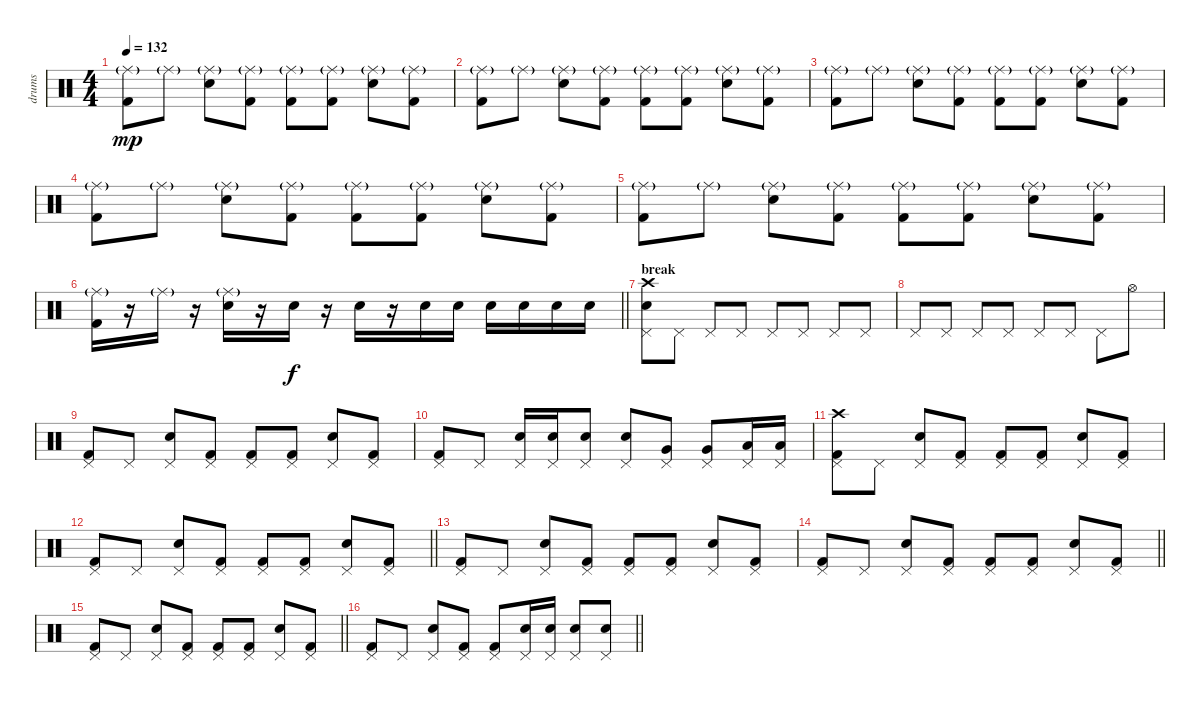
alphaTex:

\track ("drums" "drums") {instrument percussion}
\staff {score}
\articulation defaults
\ts (4 4)
\tempo 132
\clef neutral
\ks c
("Kick (hit) 2" "Ride (middle)"{g}).8{dy mp} "Ride (middle)"{g}.8 ("Electric Snare (hit)" "Ride (middle)"{g}).8 ("Kick (hit) 2" "Ride (middle)"{g}).8 ("Kick (hit) 2" "Ride (middle)"{g}).8 ("Kick (hit) 2" "Ride (middle)"{g}).8 ("Electric Snare (hit)" "Ride (middle)"{g}).8 ("Kick (hit) 2" "Ride (middle)"{g}).8 |
("Kick (hit) 2" "Ride (middle)"{g}).8 "Ride (middle)"{g}.8 ("Electric Snare (hit)" "Ride (middle)"{g}).8 ("Kick (hit) 2" "Ride (middle)"{g}).8 ("Kick (hit) 2" "Ride (middle)"{g}).8 ("Kick (hit) 2" "Ride (middle)"{g}).8 ("Electric Snare (hit)" "Ride (middle)"{g}).8 ("Kick (hit) 2" "Ride (middle)"{g}).8 |
("Kick (hit) 2" "Ride (middle)"{g}).8 "Ride (middle)"{g}.8 ("Electric Snare (hit)" "Ride (middle)"{g}).8 ("Kick (hit) 2" "Ride (middle)"{g}).8 ("Kick (hit) 2" "Ride (middle)"{g}).8 ("Kick (hit) 2" "Ride (middle)"{g}).8 ("Electric Snare (hit)" "Ride (middle)"{g}).8 ("Kick (hit) 2" "Ride (middle)"{g}).8 |
("Kick (hit) 2" "Ride (middle)"{g}).8 "Ride (middle)"{g}.8 ("Electric Snare (hit)" "Ride (middle)"{g}).8 ("Kick (hit) 2" "Ride (middle)"{g}).8 ("Kick (hit) 2" "Ride (middle)"{g}).8 ("Kick (hit) 2" "Ride (middle)"{g}).8 ("Electric Snare (hit)" "Ride (middle)"{g}).8 ("Kick (hit) 2" "Ride (middle)"{g}).8 |
("Kick (hit) 2" "Ride (middle)"{g}).8 "Ride (middle)"{g}.8 ("Electric Snare (hit)" "Ride (middle)"{g}).8 ("Kick (hit) 2" "Ride (middle)"{g}).8 ("Kick (hit) 2" "Ride (middle)"{g}).8 ("Kick (hit) 2" "Ride (middle)"{g}).8 ("Electric Snare (hit)" "Ride (middle)"{g}).8 ("Kick (hit) 2" "Ride (middle)"{g}).8 |
\barLineRight lightlight
("Kick (hit) 2" "Ride (middle)"{g}).16 r.16 "Ride (middle)"{g}.16 r.16 ("Electric Snare (hit)" "Ride (middle)"{g}).16 r.16 "Electric Snare (hit)".16{dy f} r.16 "Electric Snare (hit)".16 r.16 "Electric Snare (hit)".16 "Electric Snare (hit)".16 "Electric Snare (hit)".16 "Electric Snare (hit)".16 "Electric Snare (hit)".16 "Electric Snare (hit)".16 |
\section ("" "break ")
("Electric Snare (hit)" "Pedal Hi-Hat (hit)" "Crash high (hit)").8 "Pedal Hi-Hat (hit)".8 "Pedal Hi-Hat (hit)".8 "Pedal Hi-Hat (hit)".8 "Pedal Hi-Hat (hit)".8 "Pedal Hi-Hat (hit)".8 "Pedal Hi-Hat (hit)".8 "Pedal Hi-Hat (hit)".8 |
"Pedal Hi-Hat (hit)".8 "Pedal Hi-Hat (hit)".8 "Pedal Hi-Hat (hit)".8 "Pedal Hi-Hat (hit)".8 "Pedal Hi-Hat (hit)".8 "Pedal Hi-Hat (hit)".8 "Pedal Hi-Hat (hit)".8 "Hi-Hat (open)".8 |
("Kick (hit) 2" "Pedal Hi-Hat (hit)").8 "Pedal Hi-Hat (hit)".8 ("Electric Snare (hit)" "Pedal Hi-Hat (hit)").8 ("Kick (hit) 2" "Pedal Hi-Hat (hit)").8 ("Kick (hit) 2" "Pedal Hi-Hat (hit)").8 ("Kick (hit) 2" "Pedal Hi-Hat (hit)").8 ("Electric Snare (hit)" "Pedal Hi-Hat (hit)").8 ("Kick (hit) 2" "Pedal Hi-Hat (hit)").8 |
("Kick (hit) 2" "Pedal Hi-Hat (hit)").8 "Pedal Hi-Hat (hit)".8 ("Electric Snare (hit)" "Pedal Hi-Hat (hit)").16 ("Electric Snare (hit)" "Pedal Hi-Hat (hit)").16 ("Electric Snare (hit)" "Pedal Hi-Hat (hit)").8 ("Electric Snare (hit)" "Pedal Hi-Hat (hit)").8 ("Very Low Tom (hit)" "Pedal Hi-Hat (hit)").8 ("Very Low Tom (hit)" "Pedal Hi-Hat (hit)").8 ("Low Floor Tom (hit)" "Pedal Hi-Hat (hit)").16 ("Low Floor Tom (hit)" "Pedal Hi-Hat (hit)").16 |
("Kick (hit) 2" "Pedal Hi-Hat (hit)" "Crash high (hit)").8 "Pedal Hi-Hat (hit)".8 ("Electric Snare (hit)" "Pedal Hi-Hat (hit)").8 ("Kick (hit) 2" "Pedal Hi-Hat (hit)").8 ("Kick (hit) 2" "Pedal Hi-Hat (hit)").8 ("Kick (hit) 2" "Pedal Hi-Hat (hit)").8 ("Electric Snare (hit)" "Pedal Hi-Hat (hit)").8 ("Kick (hit) 2" "Pedal Hi-Hat (hit)").8 |
\barLineRight lightlight
("Kick (hit) 2" "Pedal Hi-Hat (hit)").8 "Pedal Hi-Hat (hit)".8 ("Electric Snare (hit)" "Pedal Hi-Hat (hit)").8 ("Kick (hit) 2" "Pedal Hi-Hat (hit)").8 ("Kick (hit) 2" "Pedal Hi-Hat (hit)").8 ("Kick (hit) 2" "Pedal Hi-Hat (hit)").8 ("Electric Snare (hit)" "Pedal Hi-Hat (hit)").8 ("Kick (hit) 2" "Pedal Hi-Hat (hit)").8 |
("Kick (hit) 2" "Pedal Hi-Hat (hit)").8 "Pedal Hi-Hat (hit)".8 ("Electric Snare (hit)" "Pedal Hi-Hat (hit)").8 ("Kick (hit) 2" "Pedal Hi-Hat (hit)").8 ("Kick (hit) 2" "Pedal Hi-Hat (hit)").8 ("Kick (hit) 2" "Pedal Hi-Hat (hit)").8 ("Electric Snare (hit)" "Pedal Hi-Hat (hit)").8 ("Kick (hit) 2" "Pedal Hi-Hat (hit)").8 |
\barLineRight lightlight
("Kick (hit) 2" "Pedal Hi-Hat (hit)").8 "Pedal Hi-Hat (hit)".8 ("Electric Snare (hit)" "Pedal Hi-Hat (hit)").8 ("Kick (hit) 2" "Pedal Hi-Hat (hit)").8 ("Kick (hit) 2" "Pedal Hi-Hat (hit)").8 ("Kick (hit) 2" "Pedal Hi-Hat (hit)").8 ("Electric Snare (hit)" "Pedal Hi-Hat (hit)").8 ("Kick (hit) 2" "Pedal Hi-Hat (hit)").8 |
\barLineRight lightlight
("Kick (hit) 2" "Pedal Hi-Hat (hit)").8 "Pedal Hi-Hat (hit)".8 ("Electric Snare (hit)" "Pedal Hi-Hat (hit)").8 ("Kick (hit) 2" "Pedal Hi-Hat (hit)").8 ("Kick (hit) 2" "Pedal Hi-Hat (hit)").8 ("Kick (hit) 2" "Pedal Hi-Hat (hit)").8 ("Electric Snare (hit)" "Pedal Hi-Hat (hit)").8 ("Kick (hit) 2" "Pedal Hi-Hat (hit)").8 |
\barLineRight lightlight
("Kick (hit) 2" "Pedal Hi-Hat (hit)").8 "Pedal Hi-Hat (hit)".8 ("Electric Snare (hit)" "Pedal Hi-Hat (hit)").8 ("Kick (hit) 2" "Pedal Hi-Hat (hit)").8 ("Kick (hit) 2" "Pedal Hi-Hat (hit)").8 ("Electric Snare (hit)" "Pedal Hi-Hat (hit)").16 ("Electric Snare (hit)" "Pedal Hi-Hat (hit)").16 ("Electric Snare (hit)" "Pedal Hi-Hat (hit)").8 ("Electric Snare (hit)" "Pedal Hi-Hat (hit)").8
